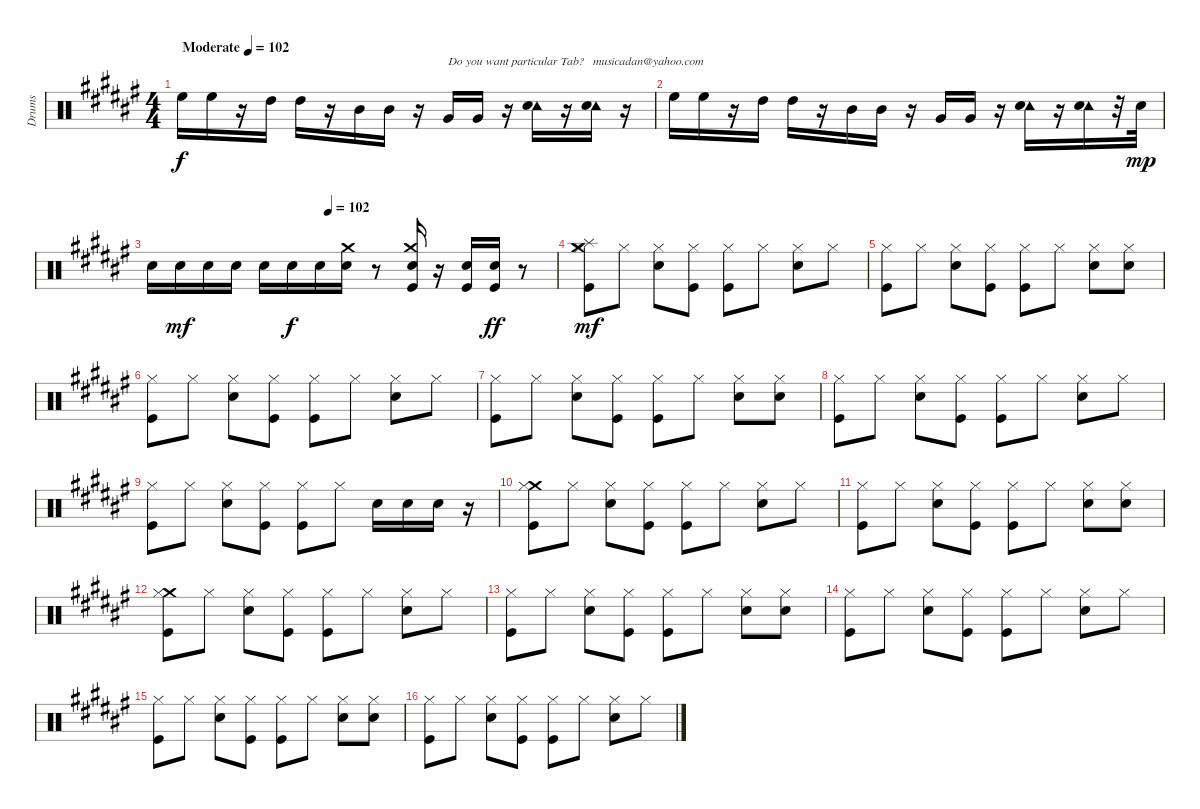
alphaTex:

\track ("Drums" "Drums") {instrument percussion}
\staff {score}
\articulation defaults
\ts (4 4)
\tempo (102 "Moderate")
\clef neutral
\ks f# "High Floor Tom (hit)".16{dy f} "High Floor Tom (hit)".16
r.16 "High Tom (hit)".16 "High Tom (hit)".16 r.16 "Mid Tom (hit)".16 "Mid Tom (hit)".16 r.16 "Very Low Tom (hit)".16{txt "Do you want particular Tab?   musicadan@yahoo.com"} "Very Low Tom (hit)".16 r.16 ("Tambourine (hit)" "Electric Snare (hit)").16 r.16 ("Tambourine (hit)" "Electric Snare (hit)").16 r.16 |
"High Floor Tom (hit)".16 "High Floor Tom (hit)".16 r.16 "High Tom (hit)".16 "High Tom (hit)".16 r.16 "Mid Tom (hit)".16 "Mid Tom (hit)".16 r.16 "Very Low Tom (hit)".16 "Very Low Tom (hit)".16 r.16 ("Tambourine (hit)" "Electric Snare (hit)").16 r.16 ("Tambourine (hit)" "Electric Snare (hit)").16 r.32 "Electric Snare (hit)".32{dy mp} |
\tempo (102 0.4375)
"Electric Snare (hit)".16 "Electric Snare (hit)".16{dy mf} "Electric Snare (hit)".16 "Electric Snare (hit)".16 "Electric Snare (hit)".16 "Electric Snare (hit)".16{dy f} "Electric Snare (hit)".16 ("Electric Snare (hit)" "Crash medium (hit)").16 r.8 ("Kick (hit)" "Electric Snare (hit)" "Crash medium (hit)").16 r.16 ("Kick (hit)" "Electric Snare (hit)").16 ("Kick (hit)" "Electric Snare (hit)").16{dy ff} r.8 |
("Splash (hit)" "Crash medium (hit)" "Kick (hit)" "Hi-Hat (closed)").8{dy mf} "Hi-Hat (closed)".8 ("Electric Snare (hit)" "Hi-Hat (closed)").8 ("Kick (hit)" "Hi-Hat (closed)").8 ("Kick (hit)" "Hi-Hat (closed)").8 "Hi-Hat (closed)".8 ("Electric Snare (hit)" "Hi-Hat (closed)").8 "Hi-Hat (closed)".8 |
("Kick (hit)" "Hi-Hat (closed)").8 "Hi-Hat (closed)".8 ("Electric Snare (hit)" "Hi-Hat (closed)").8 ("Kick (hit)" "Hi-Hat (closed)").8 ("Kick (hit)" "Hi-Hat (closed)").8 "Hi-Hat (closed)".8 ("Electric Snare (hit)" "Hi-Hat (closed)").8 ("Electric Snare (hit)" "Hi-Hat (closed)").8 |
("Kick (hit)" "Hi-Hat (closed)").8 "Hi-Hat (closed)".8 ("Electric Snare (hit)" "Hi-Hat (closed)").8 ("Kick (hit)" "Hi-Hat (closed)").8 ("Kick (hit)" "Hi-Hat (closed)").8 "Hi-Hat (closed)".8 ("Electric Snare (hit)" "Hi-Hat (closed)").8 "Hi-Hat (closed)".8 |
("Kick (hit)" "Hi-Hat (closed)").8 "Hi-Hat (closed)".8 ("Electric Snare (hit)" "Hi-Hat (closed)").8 ("Kick (hit)" "Hi-Hat (closed)").8 ("Kick (hit)" "Hi-Hat (closed)").8 "Hi-Hat (closed)".8 ("Electric Snare (hit)" "Hi-Hat (closed)").8 ("Electric Snare (hit)" "Hi-Hat (closed)").8 |
("Kick (hit)" "Hi-Hat (closed)").8 "Hi-Hat (closed)".8 ("Electric Snare (hit)" "Hi-Hat (closed)").8 ("Kick (hit)" "Hi-Hat (closed)").8 ("Kick (hit)" "Hi-Hat (closed)").8 "Hi-Hat (closed)".8 ("Electric Snare (hit)" "Hi-Hat (closed)").8 "Hi-Hat (closed)".8 |
("Kick (hit)" "Hi-Hat (closed)").8 "Hi-Hat (closed)".8 ("Electric Snare (hit)" "Hi-Hat (closed)").8 ("Kick (hit)" "Hi-Hat (closed)").8 ("Kick (hit)" "Hi-Hat (closed)").8 "Hi-Hat (closed)".8 "Electric Snare (hit)".16 "Electric Snare (hit)".16 "Electric Snare (hit)".16 r.16 |
("Crash medium (hit)" "Kick (hit)" "Hi-Hat (closed)").8 "Hi-Hat (closed)".8 ("Electric Snare (hit)" "Hi-Hat (closed)").8 ("Kick (hit)" "Hi-Hat (closed)").8 ("Kick (hit)" "Hi-Hat (closed)").8 "Hi-Hat (closed)".8 ("Electric Snare (hit)" "Hi-Hat (closed)").8 "Hi-Hat (closed)".8 |
("Kick (hit)" "Hi-Hat (closed)").8 "Hi-Hat (closed)".8 ("Electric Snare (hit)" "Hi-Hat (closed)").8 ("Kick (hit)" "Hi-Hat (closed)").8 ("Kick (hit)" "Hi-Hat (closed)").8 "Hi-Hat (closed)".8 ("Electric Snare (hit)" "Hi-Hat (closed)").8 ("Electric Snare (hit)" "Hi-Hat (closed)").8 |
("Crash medium (hit)" "Kick (hit)" "Hi-Hat (closed)").8 "Hi-Hat (closed)".8 ("Electric Snare (hit)" "Hi-Hat (closed)").8 ("Kick (hit)" "Hi-Hat (closed)").8 ("Kick (hit)" "Hi-Hat (closed)").8 "Hi-Hat (closed)".8 ("Electric Snare (hit)" "Hi-Hat (closed)").8 "Hi-Hat (closed)".8 |
("Kick (hit)" "Hi-Hat (closed)").8 "Hi-Hat (closed)".8 ("Electric Snare (hit)" "Hi-Hat (closed)").8 ("Kick (hit)" "Hi-Hat (closed)").8 ("Kick (hit)" "Hi-Hat (closed)").8 "Hi-Hat (closed)".8 ("Electric Snare (hit)" "Hi-Hat (closed)").8 ("Electric Snare (hit)" "Hi-Hat (closed)").8 |
("Kick (hit)" "Hi-Hat (closed)").8 "Hi-Hat (closed)".8 ("Electric Snare (hit)" "Hi-Hat (closed)").8 ("Kick (hit)" "Hi-Hat (closed)").8 ("Kick (hit)" "Hi-Hat (closed)").8 "Hi-Hat (closed)".8 ("Electric Snare (hit)" "Hi-Hat (closed)").8 "Hi-Hat (closed)".8 |
("Kick (hit)" "Hi-Hat (closed)").8 "Hi-Hat (closed)".8 ("Electric Snare (hit)" "Hi-Hat (closed)").8 ("Kick (hit)" "Hi-Hat (closed)").8 ("Kick (hit)" "Hi-Hat (closed)").8 "Hi-Hat (closed)".8 ("Electric Snare (hit)" "Hi-Hat (closed)").8 ("Electric Snare (hit)" "Hi-Hat (closed)").8 |
("Kick (hit)" "Hi-Hat (closed)").8 "Hi-Hat (closed)".8 ("Electric Snare (hit)" "Hi-Hat (closed)").8 ("Kick (hit)" "Hi-Hat (closed)").8 ("Kick (hit)" "Hi-Hat (closed)").8 "Hi-Hat (closed)".8 ("Electric Snare (hit)" "Hi-Hat (closed)").8 "Hi-Hat (closed)".8
